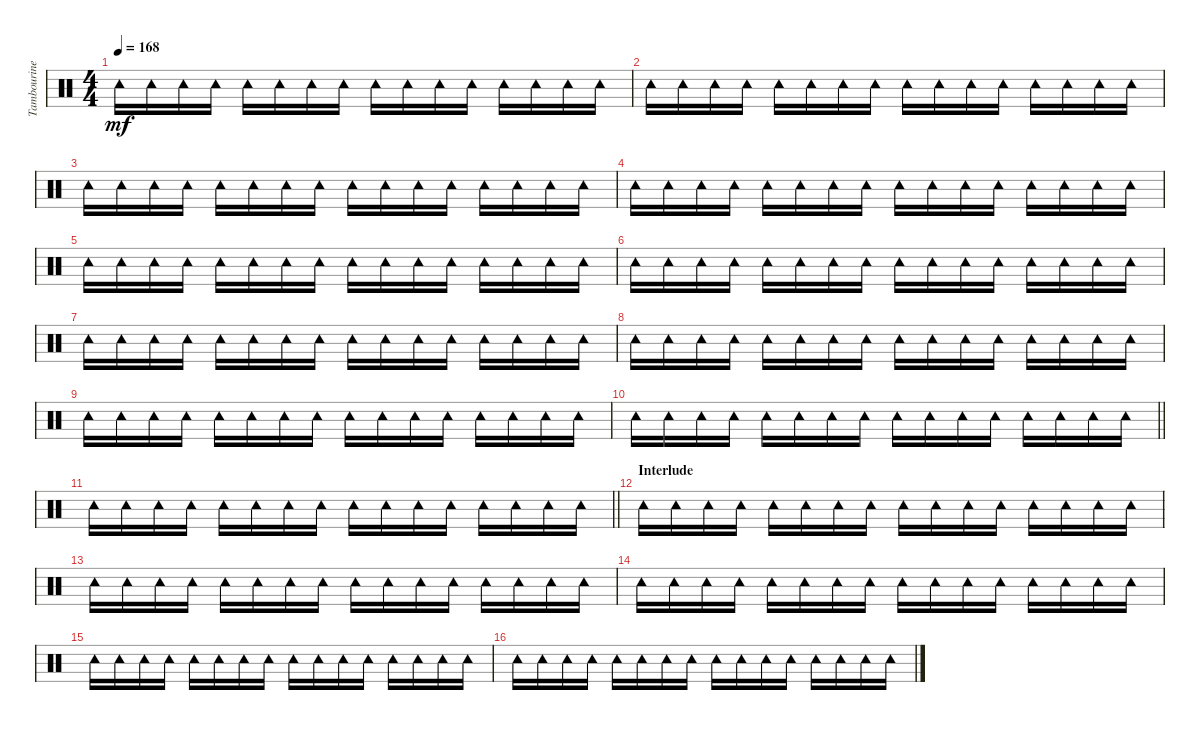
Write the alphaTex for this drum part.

\track ("Tambourine" "Tambourine") {instrument percussion}
\staff {score}
\articulation defaults
\ts (4 4)
\tempo 168
\clef neutral
\ks c "Tambourine (hit)".16{dy mf} "Tambourine (hit)".16 "Tambourine (hit)".16 "Tambourine (hit)".16 "Tambourine (hit)".16 "Tambourine (hit)".16 "Tambourine (hit)".16 "Tambourine (hit)".16 "Tambourine (hit)".16 "Tambourine (hit)".16 "Tambourine (hit)".16 "Tambourine (hit)".16 "Tambourine (hit)".16 "Tambourine (hit)".16 "Tambourine (hit)".16 "Tambourine (hit)".16
|
"Tambourine (hit)".16 "Tambourine (hit)".16 "Tambourine (hit)".16 "Tambourine (hit)".16 "Tambourine (hit)".16 "Tambourine (hit)".16 "Tambourine (hit)".16 "Tambourine (hit)".16 "Tambourine (hit)".16 "Tambourine (hit)".16 "Tambourine (hit)".16 "Tambourine (hit)".16 "Tambourine (hit)".16 "Tambourine (hit)".16 "Tambourine (hit)".16 "Tambourine (hit)".16 |
"Tambourine (hit)".16 "Tambourine (hit)".16 "Tambourine (hit)".16 "Tambourine (hit)".16 "Tambourine (hit)".16 "Tambourine (hit)".16 "Tambourine (hit)".16 "Tambourine (hit)".16 "Tambourine (hit)".16 "Tambourine (hit)".16 "Tambourine (hit)".16 "Tambourine (hit)".16 "Tambourine (hit)".16 "Tambourine (hit)".16 "Tambourine (hit)".16 "Tambourine (hit)".16 |
"Tambourine (hit)".16 "Tambourine (hit)".16 "Tambourine (hit)".16 "Tambourine (hit)".16 "Tambourine (hit)".16 "Tambourine (hit)".16 "Tambourine (hit)".16 "Tambourine (hit)".16 "Tambourine (hit)".16 "Tambourine (hit)".16 "Tambourine (hit)".16 "Tambourine (hit)".16 "Tambourine (hit)".16 "Tambourine (hit)".16 "Tambourine (hit)".16 "Tambourine (hit)".16 |
"Tambourine (hit)".16 "Tambourine (hit)".16 "Tambourine (hit)".16 "Tambourine (hit)".16 "Tambourine (hit)".16 "Tambourine (hit)".16 "Tambourine (hit)".16 "Tambourine (hit)".16 "Tambourine (hit)".16 "Tambourine (hit)".16 "Tambourine (hit)".16 "Tambourine (hit)".16 "Tambourine (hit)".16 "Tambourine (hit)".16 "Tambourine (hit)".16 "Tambourine (hit)".16 |
"Tambourine (hit)".16 "Tambourine (hit)".16 "Tambourine (hit)".16 "Tambourine (hit)".16 "Tambourine (hit)".16 "Tambourine (hit)".16 "Tambourine (hit)".16 "Tambourine (hit)".16 "Tambourine (hit)".16 "Tambourine (hit)".16 "Tambourine (hit)".16 "Tambourine (hit)".16 "Tambourine (hit)".16 "Tambourine (hit)".16 "Tambourine (hit)".16 "Tambourine (hit)".16 |
"Tambourine (hit)".16 "Tambourine (hit)".16 "Tambourine (hit)".16 "Tambourine (hit)".16 "Tambourine (hit)".16 "Tambourine (hit)".16 "Tambourine (hit)".16 "Tambourine (hit)".16 "Tambourine (hit)".16 "Tambourine (hit)".16 "Tambourine (hit)".16 "Tambourine (hit)".16 "Tambourine (hit)".16 "Tambourine (hit)".16 "Tambourine (hit)".16 "Tambourine (hit)".16 |
"Tambourine (hit)".16 "Tambourine (hit)".16 "Tambourine (hit)".16 "Tambourine (hit)".16 "Tambourine (hit)".16 "Tambourine (hit)".16 "Tambourine (hit)".16 "Tambourine (hit)".16 "Tambourine (hit)".16 "Tambourine (hit)".16 "Tambourine (hit)".16 "Tambourine (hit)".16 "Tambourine (hit)".16 "Tambourine (hit)".16 "Tambourine (hit)".16 "Tambourine (hit)".16 |
"Tambourine (hit)".16 "Tambourine (hit)".16 "Tambourine (hit)".16 "Tambourine (hit)".16 "Tambourine (hit)".16 "Tambourine (hit)".16 "Tambourine (hit)".16 "Tambourine (hit)".16 "Tambourine (hit)".16 "Tambourine (hit)".16 "Tambourine (hit)".16 "Tambourine (hit)".16 "Tambourine (hit)".16 "Tambourine (hit)".16 "Tambourine (hit)".16 "Tambourine (hit)".16 |
\barLineRight lightlight "Tambourine (hit)".16 "Tambourine (hit)".16 "Tambourine (hit)".16 "Tambourine (hit)".16 "Tambourine (hit)".16 "Tambourine (hit)".16 "Tambourine (hit)".16 "Tambourine (hit)".16 "Tambourine (hit)".16 "Tambourine (hit)".16 "Tambourine (hit)".16 "Tambourine (hit)".16 "Tambourine (hit)".16 "Tambourine (hit)".16 "Tambourine (hit)".16 "Tambourine (hit)".16
|
\section ("" "")
\barLineRight lightlight "Tambourine (hit)".16 "Tambourine (hit)".16 "Tambourine (hit)".16 "Tambourine (hit)".16 "Tambourine (hit)".16 "Tambourine (hit)".16 "Tambourine (hit)".16 "Tambourine (hit)".16 "Tambourine (hit)".16 "Tambourine (hit)".16 "Tambourine (hit)".16 "Tambourine (hit)".16 "Tambourine (hit)".16 "Tambourine (hit)".16 "Tambourine (hit)".16 "Tambourine (hit)".16
|
\section ("" "Interlude")
"Tambourine (hit)".16 "Tambourine (hit)".16 "Tambourine (hit)".16 "Tambourine (hit)".16 "Tambourine (hit)".16 "Tambourine (hit)".16 "Tambourine (hit)".16 "Tambourine (hit)".16 "Tambourine (hit)".16 "Tambourine (hit)".16 "Tambourine (hit)".16 "Tambourine (hit)".16 "Tambourine (hit)".16 "Tambourine (hit)".16 "Tambourine (hit)".16 "Tambourine (hit)".16 |
"Tambourine (hit)".16 "Tambourine (hit)".16 "Tambourine (hit)".16 "Tambourine (hit)".16 "Tambourine (hit)".16 "Tambourine (hit)".16 "Tambourine (hit)".16 "Tambourine (hit)".16 "Tambourine (hit)".16 "Tambourine (hit)".16 "Tambourine (hit)".16 "Tambourine (hit)".16 "Tambourine (hit)".16 "Tambourine (hit)".16 "Tambourine (hit)".16 "Tambourine (hit)".16 |
"Tambourine (hit)".16 "Tambourine (hit)".16 "Tambourine (hit)".16 "Tambourine (hit)".16 "Tambourine (hit)".16 "Tambourine (hit)".16 "Tambourine (hit)".16 "Tambourine (hit)".16 "Tambourine (hit)".16 "Tambourine (hit)".16 "Tambourine (hit)".16 "Tambourine (hit)".16 "Tambourine (hit)".16 "Tambourine (hit)".16 "Tambourine (hit)".16 "Tambourine (hit)".16 |
"Tambourine (hit)".16 "Tambourine (hit)".16 "Tambourine (hit)".16 "Tambourine (hit)".16 "Tambourine (hit)".16 "Tambourine (hit)".16 "Tambourine (hit)".16 "Tambourine (hit)".16 "Tambourine (hit)".16 "Tambourine (hit)".16 "Tambourine (hit)".16 "Tambourine (hit)".16 "Tambourine (hit)".16 "Tambourine (hit)".16 "Tambourine (hit)".16 "Tambourine (hit)".16 |
"Tambourine (hit)".16 "Tambourine (hit)".16 "Tambourine (hit)".16 "Tambourine (hit)".16 "Tambourine (hit)".16 "Tambourine (hit)".16 "Tambourine (hit)".16 "Tambourine (hit)".16 "Tambourine (hit)".16 "Tambourine (hit)".16 "Tambourine (hit)".16 "Tambourine (hit)".16 "Tambourine (hit)".16 "Tambourine (hit)".16 "Tambourine (hit)".16 "Tambourine (hit)".16
